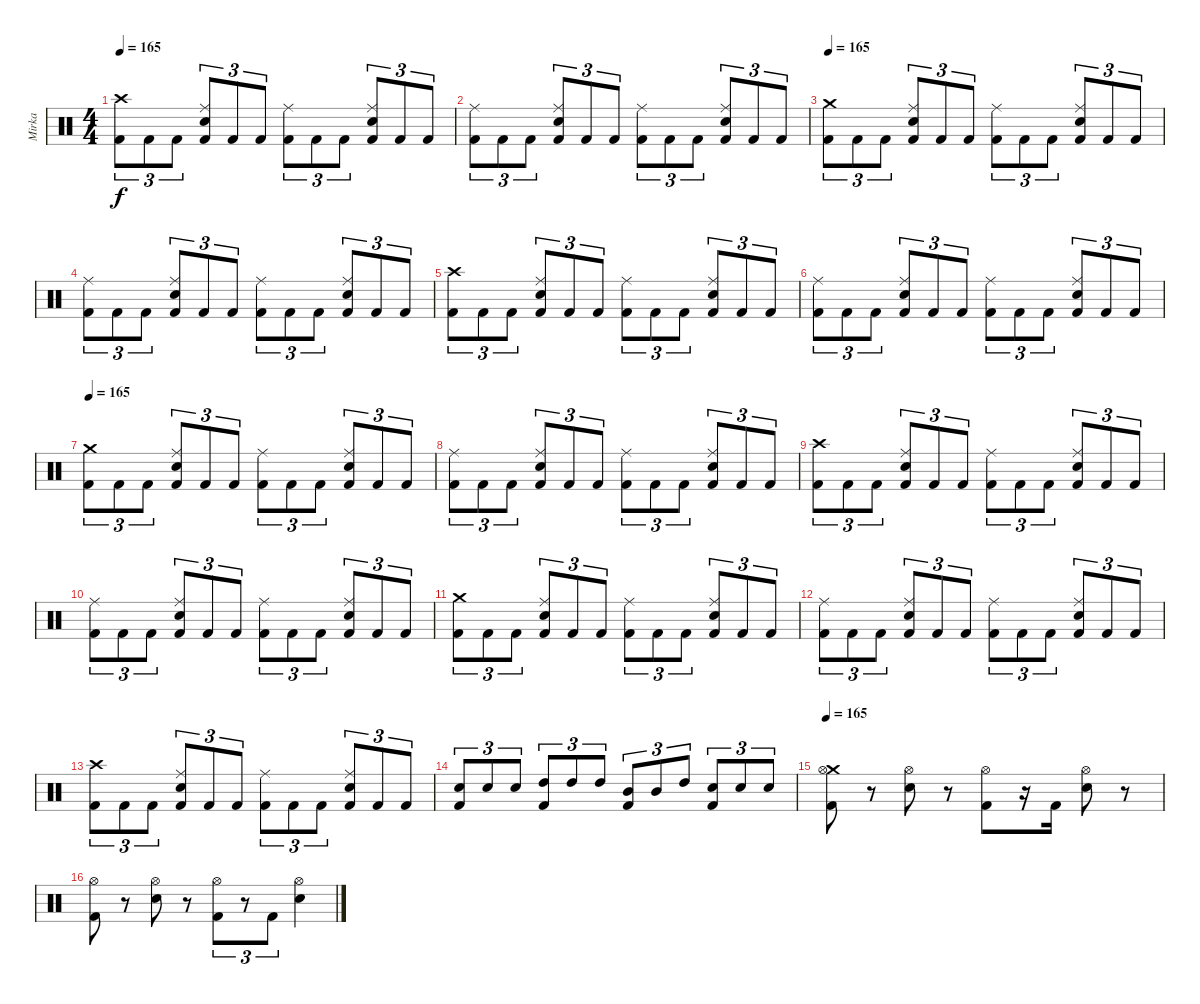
\track ("Mirka" "Mirka") {instrument percussion}
\staff {score}
\articulation defaults
\ts (4 4)
\tempo 165
\clef neutral
\ks c
("Crash high (hit)" "Kick (hit) 2").8{tu (3 2) dy f} "Kick (hit) 2".8{tu (3 2)} "Kick (hit) 2".8{tu (3 2)} ("Ride (middle)" "Electric Snare (hit)" "Kick (hit) 2").8{tu (3 2)} "Kick (hit) 2".8{tu (3 2)} "Kick (hit) 2".8{tu (3 2)} ("Ride (middle)" "Kick (hit) 2").8{tu (3 2)} "Kick (hit) 2".8{tu (3 2)} "Kick (hit) 2".8{tu (3 2)} ("Ride (middle)" "Electric Snare (hit)" "Kick (hit) 2").8{tu (3 2)} "Kick (hit) 2".8{tu (3 2)} "Kick (hit) 2".8{tu (3 2)} |
("Ride (middle)" "Kick (hit) 2").8{tu (3 2)} "Kick (hit) 2".8{tu (3 2)} "Kick (hit) 2".8{tu (3 2)} ("Ride (middle)" "Electric Snare (hit)" "Kick (hit) 2").8{tu (3 2)} "Kick (hit) 2".8{tu (3 2)} "Kick (hit) 2".8{tu (3 2)} ("Ride (middle)" "Kick (hit) 2").8{tu (3 2)} "Kick (hit) 2".8{tu (3 2)} "Kick (hit) 2".8{tu (3 2)} ("Ride (middle)" "Electric Snare (hit)" "Kick (hit) 2").8{tu (3 2)} "Kick (hit) 2".8{tu (3 2)} "Kick (hit) 2".8{tu (3 2)} |
\tempo 165
("Crash medium (hit)" "Kick (hit) 2").8{tu (3 2)} "Kick (hit) 2".8{tu (3 2)} "Kick (hit) 2".8{tu (3 2)} ("Ride (middle)" "Electric Snare (hit)" "Kick (hit) 2").8{tu (3 2)} "Kick (hit) 2".8{tu (3 2)} "Kick (hit) 2".8{tu (3 2)} ("Ride (middle)" "Kick (hit) 2").8{tu (3 2)} "Kick (hit) 2".8{tu (3 2)} "Kick (hit) 2".8{tu (3 2)} ("Ride (middle)" "Electric Snare (hit)" "Kick (hit) 2").8{tu (3 2)} "Kick (hit) 2".8{tu (3 2)} "Kick (hit) 2".8{tu (3 2)} |
("Ride (middle)" "Kick (hit) 2").8{tu (3 2)} "Kick (hit) 2".8{tu (3 2)} "Kick (hit) 2".8{tu (3 2)} ("Ride (middle)" "Electric Snare (hit)" "Kick (hit) 2").8{tu (3 2)} "Kick (hit) 2".8{tu (3 2)} "Kick (hit) 2".8{tu (3 2)} ("Ride (middle)" "Kick (hit) 2").8{tu (3 2)} "Kick (hit) 2".8{tu (3 2)} "Kick (hit) 2".8{tu (3 2)} ("Ride (middle)" "Electric Snare (hit)" "Kick (hit) 2").8{tu (3 2)} "Kick (hit) 2".8{tu (3 2)} "Kick (hit) 2".8{tu (3 2)} |
("Crash high (hit)" "Kick (hit) 2").8{tu (3 2)} "Kick (hit) 2".8{tu (3 2)} "Kick (hit) 2".8{tu (3 2)} ("Ride (middle)" "Electric Snare (hit)" "Kick (hit) 2").8{tu (3 2)} "Kick (hit) 2".8{tu (3 2)} "Kick (hit) 2".8{tu (3 2)} ("Ride (middle)" "Kick (hit) 2").8{tu (3 2)} "Kick (hit) 2".8{tu (3 2)} "Kick (hit) 2".8{tu (3 2)} ("Ride (middle)" "Electric Snare (hit)" "Kick (hit) 2").8{tu (3 2)} "Kick (hit) 2".8{tu (3 2)} "Kick (hit) 2".8{tu (3 2)} |
("Ride (middle)" "Kick (hit) 2").8{tu (3 2)} "Kick (hit) 2".8{tu (3 2)} "Kick (hit) 2".8{tu (3 2)} ("Ride (middle)" "Electric Snare (hit)" "Kick (hit) 2").8{tu (3 2)} "Kick (hit) 2".8{tu (3 2)} "Kick (hit) 2".8{tu (3 2)} ("Ride (middle)" "Kick (hit) 2").8{tu (3 2)} "Kick (hit) 2".8{tu (3 2)} "Kick (hit) 2".8{tu (3 2)} ("Ride (middle)" "Electric Snare (hit)" "Kick (hit) 2").8{tu (3 2)} "Kick (hit) 2".8{tu (3 2)} "Kick (hit) 2".8{tu (3 2)} |
\tempo 165
("Crash medium (hit)" "Kick (hit) 2").8{tu (3 2)} "Kick (hit) 2".8{tu (3 2)} "Kick (hit) 2".8{tu (3 2)} ("Ride (middle)" "Electric Snare (hit)" "Kick (hit) 2").8{tu (3 2)} "Kick (hit) 2".8{tu (3 2)} "Kick (hit) 2".8{tu (3 2)} ("Ride (middle)" "Kick (hit) 2").8{tu (3 2)} "Kick (hit) 2".8{tu (3 2)} "Kick (hit) 2".8{tu (3 2)} ("Ride (middle)" "Electric Snare (hit)" "Kick (hit) 2").8{tu (3 2)} "Kick (hit) 2".8{tu (3 2)} "Kick (hit) 2".8{tu (3 2)} |
("Ride (middle)" "Kick (hit) 2").8{tu (3 2)} "Kick (hit) 2".8{tu (3 2)} "Kick (hit) 2".8{tu (3 2)} ("Ride (middle)" "Electric Snare (hit)" "Kick (hit) 2").8{tu (3 2)} "Kick (hit) 2".8{tu (3 2)} "Kick (hit) 2".8{tu (3 2)} ("Ride (middle)" "Kick (hit) 2").8{tu (3 2)} "Kick (hit) 2".8{tu (3 2)} "Kick (hit) 2".8{tu (3 2)} ("Ride (middle)" "Electric Snare (hit)" "Kick (hit) 2").8{tu (3 2)} "Kick (hit) 2".8{tu (3 2)} "Kick (hit) 2".8{tu (3 2)} |
("Crash high (hit)" "Kick (hit) 2").8{tu (3 2)} "Kick (hit) 2".8{tu (3 2)} "Kick (hit) 2".8{tu (3 2)} ("Ride (middle)" "Electric Snare (hit)" "Kick (hit) 2").8{tu (3 2)} "Kick (hit) 2".8{tu (3 2)} "Kick (hit) 2".8{tu (3 2)} ("Ride (middle)" "Kick (hit) 2").8{tu (3 2)} "Kick (hit) 2".8{tu (3 2)} "Kick (hit) 2".8{tu (3 2)} ("Ride (middle)" "Electric Snare (hit)" "Kick (hit) 2").8{tu (3 2)} "Kick (hit) 2".8{tu (3 2)} "Kick (hit) 2".8{tu (3 2)} |
("Ride (middle)" "Kick (hit) 2").8{tu (3 2)} "Kick (hit) 2".8{tu (3 2)} "Kick (hit) 2".8{tu (3 2)} ("Ride (middle)" "Electric Snare (hit)" "Kick (hit) 2").8{tu (3 2)} "Kick (hit) 2".8{tu (3 2)} "Kick (hit) 2".8{tu (3 2)} ("Ride (middle)" "Kick (hit) 2").8{tu (3 2)} "Kick (hit) 2".8{tu (3 2)} "Kick (hit) 2".8{tu (3 2)} ("Ride (middle)" "Electric Snare (hit)" "Kick (hit) 2").8{tu (3 2)} "Kick (hit) 2".8{tu (3 2)} "Kick (hit) 2".8{tu (3 2)} |
("Crash medium (hit)" "Kick (hit) 2").8{tu (3 2)} "Kick (hit) 2".8{tu (3 2)} "Kick (hit) 2".8{tu (3 2)} ("Ride (middle)" "Electric Snare (hit)" "Kick (hit) 2").8{tu (3 2)} "Kick (hit) 2".8{tu (3 2)} "Kick (hit) 2".8{tu (3 2)} ("Ride (middle)" "Kick (hit) 2").8{tu (3 2)} "Kick (hit) 2".8{tu (3 2)} "Kick (hit) 2".8{tu (3 2)} ("Ride (middle)" "Electric Snare (hit)" "Kick (hit) 2").8{tu (3 2)} "Kick (hit) 2".8{tu (3 2)} "Kick (hit) 2".8{tu (3 2)} |
("Ride (middle)" "Kick (hit) 2").8{tu (3 2)} "Kick (hit) 2".8{tu (3 2)} "Kick (hit) 2".8{tu (3 2)} ("Ride (middle)" "Electric Snare (hit)" "Kick (hit) 2").8{tu (3 2)} "Kick (hit) 2".8{tu (3 2)} "Kick (hit) 2".8{tu (3 2)} ("Ride (middle)" "Kick (hit) 2").8{tu (3 2)} "Kick (hit) 2".8{tu (3 2)} "Kick (hit) 2".8{tu (3 2)} ("Ride (middle)" "Electric Snare (hit)" "Kick (hit) 2").8{tu (3 2)} "Kick (hit) 2".8{tu (3 2)} "Kick (hit) 2".8{tu (3 2)} |
("Crash high (hit)" "Kick (hit) 2").8{tu (3 2)} "Kick (hit) 2".8{tu (3 2)} "Kick (hit) 2".8{tu (3 2)} ("Ride (middle)" "Electric Snare (hit)" "Kick (hit) 2").8{tu (3 2)} "Kick (hit) 2".8{tu (3 2)} "Kick (hit) 2".8{tu (3 2)} ("Ride (middle)" "Kick (hit) 2").8{tu (3 2)} "Kick (hit) 2".8{tu (3 2)} "Kick (hit) 2".8{tu (3 2)} ("Ride (middle)" "Electric Snare (hit)" "Kick (hit) 2").8{tu (3 2)} "Kick (hit) 2".8{tu (3 2)} "Kick (hit) 2".8{tu (3 2)} |
("Electric Snare (hit)" "Kick (hit) 2").8{tu (3 2)} "Electric Snare (hit)".8{tu (3 2)} "Electric Snare (hit)".8{tu (3 2)} ("High Tom (hit)" "Kick (hit) 2").8{tu (3 2)} "High Tom (hit)".8{tu (3 2)} "High Tom (hit)".8{tu (3 2)} ("Mid Tom (hit)" "Kick (hit) 2").8{tu (3 2)} "Mid Tom (hit)".8{tu (3 2)} "High Tom (hit)".8{tu (3 2)} ("Electric Snare (hit)" "Kick (hit) 2").8{tu (3 2)} "Electric Snare (hit)".8{tu (3 2)} "Electric Snare (hit)".8{tu (3 2)} |
\tempo 165
("Crash medium (hit)" "Hi-Hat (open)" "Kick (hit) 2").8 r.8 ("Hi-Hat (open)" "Electric Snare (hit)").8 r.8 ("Hi-Hat (open)" "Kick (hit) 2").8 r.16 "Kick (hit) 2".16 ("Electric Snare (hit)" "Hi-Hat (open)").8 r.8 |
("Hi-Hat (open)" "Kick (hit) 2").8 r.8 ("Hi-Hat (open)" "Electric Snare (hit)").8 r.8 ("Hi-Hat (open)" "Kick (hit) 2").8{tu (3 2)} r.8{tu (3 2)} "Kick (hit) 2".8{tu (3 2)} ("Hi-Hat (open)" "Electric Snare (hit)").4
